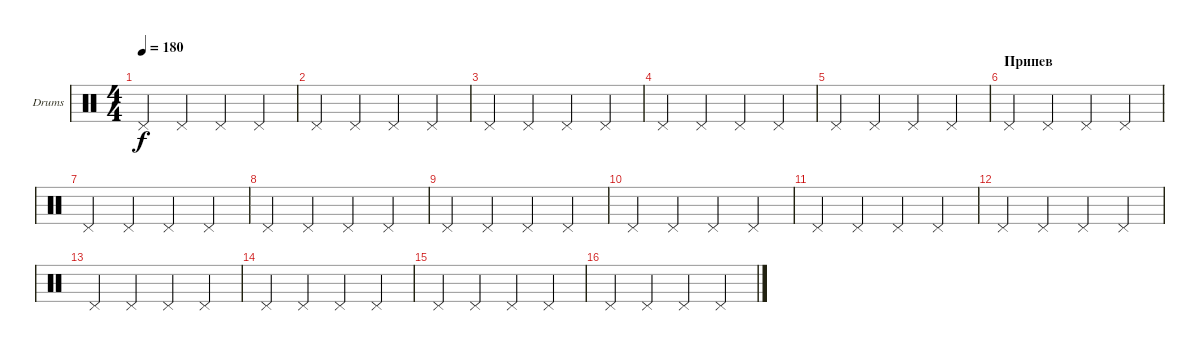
\defaultSystemsLayout 4
\bracketExtendMode groupsimilarinstruments
\firstSystemTrackNameOrientation horizontal
\otherSystemsTrackNameOrientation horizontal
\track ("Drumkit" "Drums") {instrument percussion}
\staff {score}
\articulation defaults
\ts (4 4)
\tempo 180
\clef neutral
\ks c "Pedal Hi-Hat (hit)".4{dy f} "Pedal Hi-Hat (hit)".4 "Pedal Hi-Hat (hit)".4 "Pedal Hi-Hat (hit)".4
|
"Pedal Hi-Hat (hit)".4 "Pedal Hi-Hat (hit)".4 "Pedal Hi-Hat (hit)".4 "Pedal Hi-Hat (hit)".4 |
"Pedal Hi-Hat (hit)".4 "Pedal Hi-Hat (hit)".4 "Pedal Hi-Hat (hit)".4 "Pedal Hi-Hat (hit)".4 |
"Pedal Hi-Hat (hit)".4 "Pedal Hi-Hat (hit)".4 "Pedal Hi-Hat (hit)".4 "Pedal Hi-Hat (hit)".4 |
"Pedal Hi-Hat (hit)".4 "Pedal Hi-Hat (hit)".4 "Pedal Hi-Hat (hit)".4 "Pedal Hi-Hat (hit)".4 |
\section ("" "Припев")
"Pedal Hi-Hat (hit)".4 "Pedal Hi-Hat (hit)".4 "Pedal Hi-Hat (hit)".4 "Pedal Hi-Hat (hit)".4 |
"Pedal Hi-Hat (hit)".4 "Pedal Hi-Hat (hit)".4 "Pedal Hi-Hat (hit)".4 "Pedal Hi-Hat (hit)".4 |
"Pedal Hi-Hat (hit)".4 "Pedal Hi-Hat (hit)".4 "Pedal Hi-Hat (hit)".4 "Pedal Hi-Hat (hit)".4 |
"Pedal Hi-Hat (hit)".4 "Pedal Hi-Hat (hit)".4 "Pedal Hi-Hat (hit)".4 "Pedal Hi-Hat (hit)".4 |
"Pedal Hi-Hat (hit)".4 "Pedal Hi-Hat (hit)".4 "Pedal Hi-Hat (hit)".4 "Pedal Hi-Hat (hit)".4 |
"Pedal Hi-Hat (hit)".4 "Pedal Hi-Hat (hit)".4 "Pedal Hi-Hat (hit)".4 "Pedal Hi-Hat (hit)".4 |
"Pedal Hi-Hat (hit)".4 "Pedal Hi-Hat (hit)".4 "Pedal Hi-Hat (hit)".4 "Pedal Hi-Hat (hit)".4 |
"Pedal Hi-Hat (hit)".4 "Pedal Hi-Hat (hit)".4 "Pedal Hi-Hat (hit)".4 "Pedal Hi-Hat (hit)".4 |
"Pedal Hi-Hat (hit)".4 "Pedal Hi-Hat (hit)".4 "Pedal Hi-Hat (hit)".4 "Pedal Hi-Hat (hit)".4 |
"Pedal Hi-Hat (hit)".4 "Pedal Hi-Hat (hit)".4 "Pedal Hi-Hat (hit)".4 "Pedal Hi-Hat (hit)".4 |
"Pedal Hi-Hat (hit)".4 "Pedal Hi-Hat (hit)".4 "Pedal Hi-Hat (hit)".4 "Pedal Hi-Hat (hit)".4
